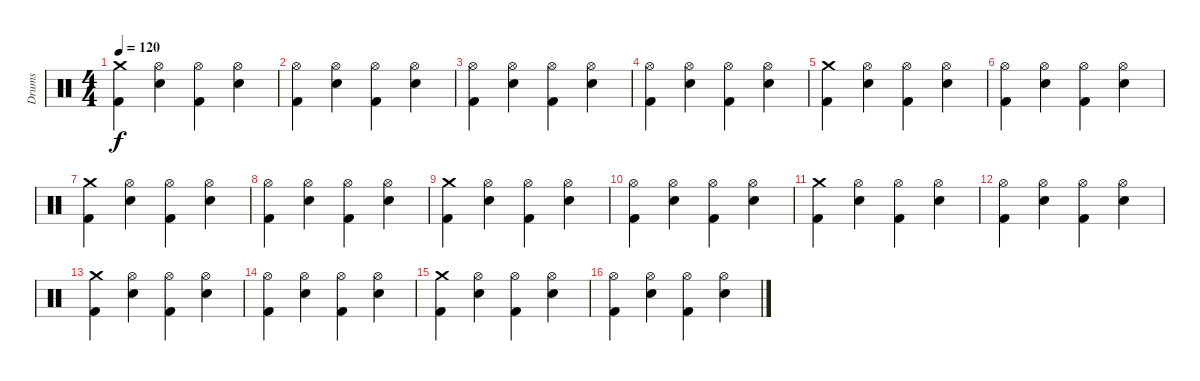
\track ("Drums" "Drums") {instrument percussion}
\staff {score}
\articulation defaults
\ts (4 4)
\tempo 120
\clef neutral
\ks c
("Crash medium (hit)" "Kick (hit) 2").4{dy f} ("Hi-Hat (open)" "Snare (hit) 2").4 ("Hi-Hat (open)" "Kick (hit) 2").4 ("Hi-Hat (open)" "Snare (hit) 2").4 |
("Hi-Hat (open)" "Kick (hit) 2").4 ("Hi-Hat (open)" "Snare (hit) 2").4 ("Hi-Hat (open)" "Kick (hit) 2").4 ("Hi-Hat (open)" "Snare (hit) 2").4 |
("Hi-Hat (open)" "Kick (hit) 2").4 ("Hi-Hat (open)" "Snare (hit) 2").4 ("Hi-Hat (open)" "Kick (hit) 2").4 ("Hi-Hat (open)" "Snare (hit) 2").4 |
("Hi-Hat (open)" "Kick (hit) 2").4 ("Hi-Hat (open)" "Snare (hit) 2").4 ("Hi-Hat (open)" "Kick (hit) 2").4 ("Hi-Hat (open)" "Snare (hit) 2").4 |
("Crash medium (hit)" "Kick (hit) 2").4 ("Hi-Hat (open)" "Snare (hit) 2").4 ("Hi-Hat (open)" "Kick (hit) 2").4 ("Hi-Hat (open)" "Snare (hit) 2").4 |
("Hi-Hat (open)" "Kick (hit) 2").4 ("Hi-Hat (open)" "Snare (hit) 2").4 ("Hi-Hat (open)" "Kick (hit) 2").4 ("Hi-Hat (open)" "Snare (hit) 2").4 |
("Crash medium (hit)" "Kick (hit) 2").4 ("Hi-Hat (open)" "Snare (hit) 2").4 ("Hi-Hat (open)" "Kick (hit) 2").4 ("Hi-Hat (open)" "Snare (hit) 2").4 |
("Hi-Hat (open)" "Kick (hit) 2").4 ("Hi-Hat (open)" "Snare (hit) 2").4 ("Hi-Hat (open)" "Kick (hit) 2").4 ("Hi-Hat (open)" "Snare (hit) 2").4 |
("Crash medium (hit)" "Kick (hit) 2").4 ("Hi-Hat (open)" "Snare (hit) 2").4 ("Hi-Hat (open)" "Kick (hit) 2").4 ("Hi-Hat (open)" "Snare (hit) 2").4 |
("Hi-Hat (open)" "Kick (hit) 2").4 ("Hi-Hat (open)" "Snare (hit) 2").4 ("Hi-Hat (open)" "Kick (hit) 2").4 ("Hi-Hat (open)" "Snare (hit) 2").4 |
("Crash medium (hit)" "Kick (hit) 2").4 ("Hi-Hat (open)" "Snare (hit) 2").4 ("Hi-Hat (open)" "Kick (hit) 2").4 ("Hi-Hat (open)" "Snare (hit) 2").4 |
("Hi-Hat (open)" "Kick (hit) 2").4 ("Hi-Hat (open)" "Snare (hit) 2").4 ("Hi-Hat (open)" "Kick (hit) 2").4 ("Hi-Hat (open)" "Snare (hit) 2").4 |
("Crash medium (hit)" "Kick (hit) 2").4 ("Hi-Hat (open)" "Snare (hit) 2").4 ("Hi-Hat (open)" "Kick (hit) 2").4 ("Hi-Hat (open)" "Snare (hit) 2").4 |
("Hi-Hat (open)" "Kick (hit) 2").4 ("Hi-Hat (open)" "Snare (hit) 2").4 ("Hi-Hat (open)" "Kick (hit) 2").4 ("Hi-Hat (open)" "Snare (hit) 2").4 |
("Crash medium (hit)" "Kick (hit) 2").4 ("Hi-Hat (open)" "Snare (hit) 2").4 ("Hi-Hat (open)" "Kick (hit) 2").4 ("Hi-Hat (open)" "Snare (hit) 2").4 |
("Hi-Hat (open)" "Kick (hit) 2").4 ("Hi-Hat (open)" "Snare (hit) 2").4 ("Hi-Hat (open)" "Kick (hit) 2").4 ("Hi-Hat (open)" "Snare (hit) 2").4
